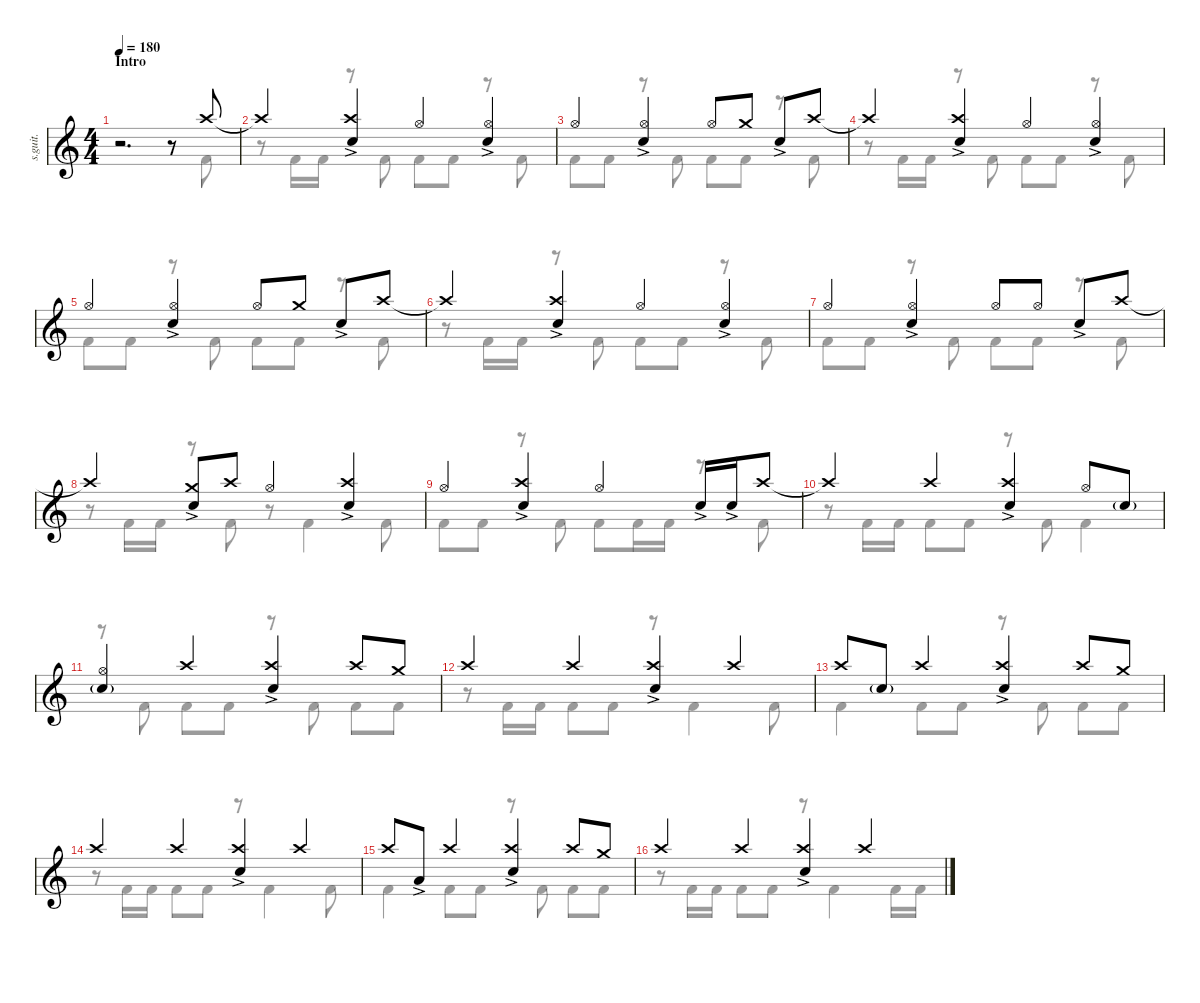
\defaultSystemsLayout 4
\hideDynamics
\bracketExtendMode nobrackets
\track ("Percussion" "s.guit.") {instrument percussion}
\staff {score}
\articulation defaults
\voice
\ts (4 4)
\beaming (8 2 2 2 2)
\section ("" "Intro")
\tempo 180
\clef g2
\ks c
r.2{d dy f} r.8 "Crash high (hit)".8{lyrics (0 "") lyrics (1 "") lyrics (2 "") lyrics (3 "") lyrics (4 "")} |
"Crash high (hit)"{t}.4{lyrics (0 "") lyrics (1 "") lyrics (2 "") lyrics (3 "") lyrics (4 "")} ("Crash high (hit)" "Snare (hit) 2"{ac}).4{lyrics (0 "") lyrics (1 "") lyrics (2 "") lyrics (3 "") lyrics (4 "")} "Hi-Hat (open)".4{lyrics (0 "") lyrics (1 "") lyrics (2 "") lyrics (3 "") lyrics (4 "")} ("Hi-Hat (open)" "Snare (hit) 2"{ac}).4{lyrics (0 "") lyrics (1 "") lyrics (2 "") lyrics (3 "") lyrics (4 "")} |
"Hi-Hat (open)".4{lyrics (0 "") lyrics (1 "") lyrics (2 "") lyrics (3 "") lyrics (4 "")} ("Hi-Hat (open)" "Snare (hit) 2"{ac}).4{lyrics (0 "") lyrics (1 "") lyrics (2 "") lyrics (3 "") lyrics (4 "")} "Hi-Hat (open)".8{lyrics (0 "") lyrics (1 "") lyrics (2 "") lyrics (3 "") lyrics (4 "")} "Crash medium (hit)".8{lyrics (0 "") lyrics (1 "") lyrics (2 "") lyrics (3 "") lyrics (4 "")} "Snare (hit) 2"{ac}.8{lyrics (0 "") lyrics (1 "") lyrics (2 "") lyrics (3 "") lyrics (4 "")} "Crash high (hit)".8{lyrics (0 "") lyrics (1 "") lyrics (2 "") lyrics (3 "") lyrics (4 "")} |
"Crash high (hit)"{t}.4{lyrics (0 "") lyrics (1 "") lyrics (2 "") lyrics (3 "") lyrics (4 "")} ("Crash high (hit)" "Snare (hit) 2"{ac}).4{lyrics (0 "") lyrics (1 "") lyrics (2 "") lyrics (3 "") lyrics (4 "")} "Hi-Hat (open)".4{lyrics (0 "") lyrics (1 "") lyrics (2 "") lyrics (3 "") lyrics (4 "")} ("Hi-Hat (open)" "Snare (hit) 2"{ac}).4{lyrics (0 "") lyrics (1 "") lyrics (2 "") lyrics (3 "") lyrics (4 "")} |
"Hi-Hat (open)".4{lyrics (0 "") lyrics (1 "") lyrics (2 "") lyrics (3 "") lyrics (4 "")} ("Hi-Hat (open)" "Snare (hit) 2"{ac}).4{lyrics (0 "") lyrics (1 "") lyrics (2 "") lyrics (3 "") lyrics (4 "")} "Hi-Hat (open)".8{lyrics (0 "") lyrics (1 "") lyrics (2 "") lyrics (3 "") lyrics (4 "")} "Crash medium (hit)".8{lyrics (0 "") lyrics (1 "") lyrics (2 "") lyrics (3 "") lyrics (4 "")} "Snare (hit) 2"{ac}.8{lyrics (0 "") lyrics (1 "") lyrics (2 "") lyrics (3 "") lyrics (4 "")} "Crash high (hit)".8{lyrics (0 "") lyrics (1 "") lyrics (2 "") lyrics (3 "") lyrics (4 "")} |
"Crash high (hit)"{t}.4{lyrics (0 "") lyrics (1 "") lyrics (2 "") lyrics (3 "") lyrics (4 "")} ("Crash high (hit)" "Snare (hit) 2"{ac}).4{lyrics (0 "") lyrics (1 "") lyrics (2 "") lyrics (3 "") lyrics (4 "")} "Hi-Hat (open)".4{lyrics (0 "") lyrics (1 "") lyrics (2 "") lyrics (3 "") lyrics (4 "")} ("Hi-Hat (open)" "Snare (hit) 2"{ac}).4{lyrics (0 "") lyrics (1 "") lyrics (2 "") lyrics (3 "") lyrics (4 "")} |
"Hi-Hat (open)".4{lyrics (0 "") lyrics (1 "") lyrics (2 "") lyrics (3 "") lyrics (4 "")} ("Hi-Hat (open)" "Snare (hit) 2"{ac}).4{lyrics (0 "") lyrics (1 "") lyrics (2 "") lyrics (3 "") lyrics (4 "")} "Hi-Hat (open)".8{lyrics (0 "") lyrics (1 "") lyrics (2 "") lyrics (3 "") lyrics (4 "")} "Hi-Hat (open)".8{lyrics (0 "") lyrics (1 "") lyrics (2 "") lyrics (3 "") lyrics (4 "")} "Snare (hit) 2"{ac}.8{lyrics (0 "") lyrics (1 "") lyrics (2 "") lyrics (3 "") lyrics (4 "")} "Crash high (hit)".8{lyrics (0 "") lyrics (1 "") lyrics (2 "") lyrics (3 "") lyrics (4 "")} |
"Crash high (hit)"{t}.4{lyrics (0 "") lyrics (1 "") lyrics (2 "") lyrics (3 "") lyrics (4 "")} ("Snare (hit) 2"{ac} "Crash medium (hit)").8{lyrics (0 "") lyrics (1 "") lyrics (2 "") lyrics (3 "") lyrics (4 "")} "Crash high (hit)".8{lyrics (0 "") lyrics (1 "") lyrics (2 "") lyrics (3 "") lyrics (4 "")} "Hi-Hat (open)".4{lyrics (0 "") lyrics (1 "") lyrics (2 "") lyrics (3 "") lyrics (4 "")} ("Snare (hit) 2"{ac} "Crash high (hit)").4{lyrics (0 "") lyrics (1 "") lyrics (2 "") lyrics (3 "") lyrics (4 "")} |
"Hi-Hat (open)".4{lyrics (0 "") lyrics (1 "") lyrics (2 "") lyrics (3 "") lyrics (4 "")} ("Crash high (hit)" "Snare (hit) 2"{ac}).4{lyrics (0 "") lyrics (1 "") lyrics (2 "") lyrics (3 "") lyrics (4 "")} "Hi-Hat (open)".4{lyrics (0 "") lyrics (1 "") lyrics (2 "") lyrics (3 "") lyrics (4 "")} "Snare (hit) 2"{ac}.16{lyrics (0 "") lyrics (1 "") lyrics (2 "") lyrics (3 "") lyrics (4 "")} "Snare (hit) 2"{ac}.16{lyrics (0 "") lyrics (1 "") lyrics (2 "") lyrics (3 "") lyrics (4 "")} "Crash high (hit)".8{lyrics (0 "") lyrics (1 "") lyrics (2 "") lyrics (3 "") lyrics (4 "")} |
"Crash high (hit)"{t}.4{lyrics (0 "") lyrics (1 "") lyrics (2 "") lyrics (3 "") lyrics (4 "")} "Crash high (hit)".4{lyrics (0 "") lyrics (1 "") lyrics (2 "") lyrics (3 "") lyrics (4 "")} ("Snare (hit) 2"{ac} "Crash high (hit)").4{lyrics (0 "") lyrics (1 "") lyrics (2 "") lyrics (3 "") lyrics (4 "")} "Hi-Hat (open)".8{lyrics (0 "") lyrics (1 "") lyrics (2 "") lyrics (3 "") lyrics (4 "")} "Snare (hit) 2"{g}.8{lyrics (0 "") lyrics (1 "") lyrics (2 "") lyrics (3 "") lyrics (4 "")} |
("Snare (hit) 2"{g} "Hi-Hat (open)").4{lyrics (0 "") lyrics (1 "") lyrics (2 "") lyrics (3 "") lyrics (4 "")} "Crash high (hit)".4{lyrics (0 "") lyrics (1 "") lyrics (2 "") lyrics (3 "") lyrics (4 "")} ("Crash high (hit)" "Snare (hit) 2"{ac}).4{lyrics (0 "") lyrics (1 "") lyrics (2 "") lyrics (3 "") lyrics (4 "")} "Crash high (hit)".8{lyrics (0 "") lyrics (1 "") lyrics (2 "") lyrics (3 "") lyrics (4 "")} "Crash medium (hit)".8{lyrics (0 "") lyrics (1 "") lyrics (2 "") lyrics (3 "") lyrics (4 "")} |
"Crash high (hit)".4{lyrics (0 "") lyrics (1 "") lyrics (2 "") lyrics (3 "") lyrics (4 "")} "Crash high (hit)".4{lyrics (0 "") lyrics (1 "") lyrics (2 "") lyrics (3 "") lyrics (4 "")} ("Crash high (hit)" "Snare (hit) 2"{ac}).4{lyrics (0 "") lyrics (1 "") lyrics (2 "") lyrics (3 "") lyrics (4 "")} "Crash high (hit)".4{lyrics (0 "") lyrics (1 "") lyrics (2 "") lyrics (3 "") lyrics (4 "")} |
"Crash high (hit)".8{lyrics (0 "") lyrics (1 "") lyrics (2 "") lyrics (3 "") lyrics (4 "")} "Snare (hit) 2"{g}.8{lyrics (0 "") lyrics (1 "") lyrics (2 "") lyrics (3 "") lyrics (4 "")} "Crash high (hit)".4{lyrics (0 "") lyrics (1 "") lyrics (2 "") lyrics (3 "") lyrics (4 "")} ("Crash high (hit)" "Snare (hit) 2"{ac}).4{lyrics (0 "") lyrics (1 "") lyrics (2 "") lyrics (3 "") lyrics (4 "")} "Crash high (hit)".8{lyrics (0 "") lyrics (1 "") lyrics (2 "") lyrics (3 "") lyrics (4 "")} "Crash medium (hit)".8{lyrics (0 "") lyrics (1 "") lyrics (2 "") lyrics (3 "") lyrics (4 "")} |
"Crash high (hit)".4{lyrics (0 "") lyrics (1 "") lyrics (2 "") lyrics (3 "") lyrics (4 "")} "Crash high (hit)".4{lyrics (0 "") lyrics (1 "") lyrics (2 "") lyrics (3 "") lyrics (4 "")} ("Crash high (hit)" "Snare (hit) 2"{ac}).4{lyrics (0 "") lyrics (1 "") lyrics (2 "") lyrics (3 "") lyrics (4 "")} "Crash high (hit)".4{lyrics (0 "") lyrics (1 "") lyrics (2 "") lyrics (3 "") lyrics (4 "")} |
"Crash high (hit)".8{lyrics (0 "") lyrics (1 "") lyrics (2 "") lyrics (3 "") lyrics (4 "")} "Low Tom (hit)"{ac}.8{lyrics (0 "") lyrics (1 "") lyrics (2 "") lyrics (3 "") lyrics (4 "")} "Crash high (hit)".4{lyrics (0 "") lyrics (1 "") lyrics (2 "") lyrics (3 "") lyrics (4 "")} ("Crash high (hit)" "Snare (hit) 2"{ac}).4{lyrics (0 "") lyrics (1 "") lyrics (2 "") lyrics (3 "") lyrics (4 "")} "Crash high (hit)".8{lyrics (0 "") lyrics (1 "") lyrics (2 "") lyrics (3 "") lyrics (4 "")} "Crash medium (hit)".8{lyrics (0 "") lyrics (1 "") lyrics (2 "") lyrics (3 "") lyrics (4 "")} |
"Crash high (hit)".4{lyrics (0 "") lyrics (1 "") lyrics (2 "") lyrics (3 "") lyrics (4 "")} "Crash high (hit)".4{lyrics (0 "") lyrics (1 "") lyrics (2 "") lyrics (3 "") lyrics (4 "")} ("Crash high (hit)" "Snare (hit) 2"{ac}).4{lyrics (0 "") lyrics (1 "") lyrics (2 "") lyrics (3 "") lyrics (4 "")} "Crash high (hit)".4{lyrics (0 "") lyrics (1 "") lyrics (2 "") lyrics (3 "") lyrics (4 "")}
\voice
\clef g2
\ottava regular
\simile none
\ks c
r.2{d dy f} r.8 "Kick (hit) 2".8{lyrics (0 "") lyrics (1 "") lyrics (2 "") lyrics (3 "") lyrics (4 "")} |
r.8 "Kick (hit) 2".16{lyrics (0 "") lyrics (1 "") lyrics (2 "") lyrics (3 "") lyrics (4 "")} "Kick (hit) 2".16{lyrics (0 "") lyrics (1 "") lyrics (2 "") lyrics (3 "") lyrics (4 "")} r.8 "Kick (hit) 2".8{lyrics (0 "") lyrics (1 "") lyrics (2 "") lyrics (3 "") lyrics (4 "")} "Kick (hit) 2".8{lyrics (0 "") lyrics (1 "") lyrics (2 "") lyrics (3 "") lyrics (4 "")} "Kick (hit) 2".8{lyrics (0 "") lyrics (1 "") lyrics (2 "") lyrics (3 "") lyrics (4 "")} r.8 "Kick (hit) 2".8{lyrics (0 "") lyrics (1 "") lyrics (2 "") lyrics (3 "") lyrics (4 "")} |
"Kick (hit) 2".8{lyrics (0 "") lyrics (1 "") lyrics (2 "") lyrics (3 "") lyrics (4 "")} "Kick (hit) 2".8{lyrics (0 "") lyrics (1 "") lyrics (2 "") lyrics (3 "") lyrics (4 "")} r.8 "Kick (hit) 2".8{lyrics (0 "") lyrics (1 "") lyrics (2 "") lyrics (3 "") lyrics (4 "")} "Kick (hit) 2".8{lyrics (0 "") lyrics (1 "") lyrics (2 "") lyrics (3 "") lyrics (4 "")} "Kick (hit) 2".8{lyrics (0 "") lyrics (1 "") lyrics (2 "") lyrics (3 "") lyrics (4 "")} r.8 "Kick (hit) 2".8{lyrics (0 "") lyrics (1 "") lyrics (2 "") lyrics (3 "") lyrics (4 "")} |
r.8 "Kick (hit) 2".16{lyrics (0 "") lyrics (1 "") lyrics (2 "") lyrics (3 "") lyrics (4 "")} "Kick (hit) 2".16{lyrics (0 "") lyrics (1 "") lyrics (2 "") lyrics (3 "") lyrics (4 "")} r.8 "Kick (hit) 2".8{lyrics (0 "") lyrics (1 "") lyrics (2 "") lyrics (3 "") lyrics (4 "")} "Kick (hit) 2".8{lyrics (0 "") lyrics (1 "") lyrics (2 "") lyrics (3 "") lyrics (4 "")} "Kick (hit) 2".8{lyrics (0 "") lyrics (1 "") lyrics (2 "") lyrics (3 "") lyrics (4 "")} r.8 "Kick (hit) 2".8{lyrics (0 "") lyrics (1 "") lyrics (2 "") lyrics (3 "") lyrics (4 "")} |
"Kick (hit) 2".8{lyrics (0 "") lyrics (1 "") lyrics (2 "") lyrics (3 "") lyrics (4 "")} "Kick (hit) 2".8{lyrics (0 "") lyrics (1 "") lyrics (2 "") lyrics (3 "") lyrics (4 "")} r.8 "Kick (hit) 2".8{lyrics (0 "") lyrics (1 "") lyrics (2 "") lyrics (3 "") lyrics (4 "")} "Kick (hit) 2".8{lyrics (0 "") lyrics (1 "") lyrics (2 "") lyrics (3 "") lyrics (4 "")} "Kick (hit) 2".8{lyrics (0 "") lyrics (1 "") lyrics (2 "") lyrics (3 "") lyrics (4 "")} r.8 "Kick (hit) 2".8{lyrics (0 "") lyrics (1 "") lyrics (2 "") lyrics (3 "") lyrics (4 "")} |
r.8 "Kick (hit) 2".16{lyrics (0 "") lyrics (1 "") lyrics (2 "") lyrics (3 "") lyrics (4 "")} "Kick (hit) 2".16{lyrics (0 "") lyrics (1 "") lyrics (2 "") lyrics (3 "") lyrics (4 "")} r.8 "Kick (hit) 2".8{lyrics (0 "") lyrics (1 "") lyrics (2 "") lyrics (3 "") lyrics (4 "")} "Kick (hit) 2".8{lyrics (0 "") lyrics (1 "") lyrics (2 "") lyrics (3 "") lyrics (4 "")} "Kick (hit) 2".8{lyrics (0 "") lyrics (1 "") lyrics (2 "") lyrics (3 "") lyrics (4 "")} r.8 "Kick (hit) 2".8{lyrics (0 "") lyrics (1 "") lyrics (2 "") lyrics (3 "") lyrics (4 "")} |
"Kick (hit) 2".8{lyrics (0 "") lyrics (1 "") lyrics (2 "") lyrics (3 "") lyrics (4 "")} "Kick (hit) 2".8{lyrics (0 "") lyrics (1 "") lyrics (2 "") lyrics (3 "") lyrics (4 "")} r.8 "Kick (hit) 2".8{lyrics (0 "") lyrics (1 "") lyrics (2 "") lyrics (3 "") lyrics (4 "")} "Kick (hit) 2".8{lyrics (0 "") lyrics (1 "") lyrics (2 "") lyrics (3 "") lyrics (4 "")} "Kick (hit) 2".8{lyrics (0 "") lyrics (1 "") lyrics (2 "") lyrics (3 "") lyrics (4 "")} r.8 "Kick (hit) 2".8{lyrics (0 "") lyrics (1 "") lyrics (2 "") lyrics (3 "") lyrics (4 "")} |
r.8 "Kick (hit) 2".16{lyrics (0 "") lyrics (1 "") lyrics (2 "") lyrics (3 "") lyrics (4 "")} "Kick (hit) 2".16{lyrics (0 "") lyrics (1 "") lyrics (2 "") lyrics (3 "") lyrics (4 "")} r.8 "Kick (hit) 2".8{lyrics (0 "") lyrics (1 "") lyrics (2 "") lyrics (3 "") lyrics (4 "")} r.8 "Kick (hit) 2".4{lyrics (0 "") lyrics (1 "") lyrics (2 "") lyrics (3 "") lyrics (4 "")} "Kick (hit) 2".8{lyrics (0 "") lyrics (1 "") lyrics (2 "") lyrics (3 "") lyrics (4 "")} |
"Kick (hit) 2".8{lyrics (0 "") lyrics (1 "") lyrics (2 "") lyrics (3 "") lyrics (4 "")} "Kick (hit) 2".8{lyrics (0 "") lyrics (1 "") lyrics (2 "") lyrics (3 "") lyrics (4 "")} r.8 "Kick (hit) 2".8{lyrics (0 "") lyrics (1 "") lyrics (2 "") lyrics (3 "") lyrics (4 "")} "Kick (hit) 2".8{lyrics (0 "") lyrics (1 "") lyrics (2 "") lyrics (3 "") lyrics (4 "")} "Kick (hit) 2".16{lyrics (0 "") lyrics (1 "") lyrics (2 "") lyrics (3 "") lyrics (4 "")} "Kick (hit) 2".16{lyrics (0 "") lyrics (1 "") lyrics (2 "") lyrics (3 "") lyrics (4 "")} r.8 "Kick (hit) 2".8{lyrics (0 "") lyrics (1 "") lyrics (2 "") lyrics (3 "") lyrics (4 "")} |
r.8 "Kick (hit) 2".16{lyrics (0 "") lyrics (1 "") lyrics (2 "") lyrics (3 "") lyrics (4 "")} "Kick (hit) 2".16{lyrics (0 "") lyrics (1 "") lyrics (2 "") lyrics (3 "") lyrics (4 "")} "Kick (hit) 2".8{lyrics (0 "") lyrics (1 "") lyrics (2 "") lyrics (3 "") lyrics (4 "")} "Kick (hit) 2".8{lyrics (0 "") lyrics (1 "") lyrics (2 "") lyrics (3 "") lyrics (4 "")} r.8 "Kick (hit) 2".8{lyrics (0 "") lyrics (1 "") lyrics (2 "") lyrics (3 "") lyrics (4 "")} "Kick (hit) 2".4{lyrics (0 "") lyrics (1 "") lyrics (2 "") lyrics (3 "") lyrics (4 "")} |
r.8 "Kick (hit) 2".8{lyrics (0 "") lyrics (1 "") lyrics (2 "") lyrics (3 "") lyrics (4 "")} "Kick (hit) 2".8{lyrics (0 "") lyrics (1 "") lyrics (2 "") lyrics (3 "") lyrics (4 "")} "Kick (hit) 2".8{lyrics (0 "") lyrics (1 "") lyrics (2 "") lyrics (3 "") lyrics (4 "")} r.8 "Kick (hit) 2".8{lyrics (0 "") lyrics (1 "") lyrics (2 "") lyrics (3 "") lyrics (4 "")} "Kick (hit) 2".8{lyrics (0 "") lyrics (1 "") lyrics (2 "") lyrics (3 "") lyrics (4 "")} "Kick (hit) 2".8{lyrics (0 "") lyrics (1 "") lyrics (2 "") lyrics (3 "") lyrics (4 "")} |
r.8 "Kick (hit) 2".16{lyrics (0 "") lyrics (1 "") lyrics (2 "") lyrics (3 "") lyrics (4 "")} "Kick (hit) 2".16{lyrics (0 "") lyrics (1 "") lyrics (2 "") lyrics (3 "") lyrics (4 "")} "Kick (hit) 2".8{lyrics (0 "") lyrics (1 "") lyrics (2 "") lyrics (3 "") lyrics (4 "")} "Kick (hit) 2".8{lyrics (0 "") lyrics (1 "") lyrics (2 "") lyrics (3 "") lyrics (4 "")} r.8 "Kick (hit) 2".4{lyrics (0 "") lyrics (1 "") lyrics (2 "") lyrics (3 "") lyrics (4 "")} "Kick (hit) 2".8{lyrics (0 "") lyrics (1 "") lyrics (2 "") lyrics (3 "") lyrics (4 "")} |
"Kick (hit) 2".4{lyrics (0 "") lyrics (1 "") lyrics (2 "") lyrics (3 "") lyrics (4 "")} "Kick (hit) 2".8{lyrics (0 "") lyrics (1 "") lyrics (2 "") lyrics (3 "") lyrics (4 "")} "Kick (hit) 2".8{lyrics (0 "") lyrics (1 "") lyrics (2 "") lyrics (3 "") lyrics (4 "")} r.8 "Kick (hit) 2".8{lyrics (0 "") lyrics (1 "") lyrics (2 "") lyrics (3 "") lyrics (4 "")} "Kick (hit) 2".8{lyrics (0 "") lyrics (1 "") lyrics (2 "") lyrics (3 "") lyrics (4 "")} "Kick (hit) 2".8{lyrics (0 "") lyrics (1 "") lyrics (2 "") lyrics (3 "") lyrics (4 "")} |
r.8 "Kick (hit) 2".16{lyrics (0 "") lyrics (1 "") lyrics (2 "") lyrics (3 "") lyrics (4 "")} "Kick (hit) 2".16{lyrics (0 "") lyrics (1 "") lyrics (2 "") lyrics (3 "") lyrics (4 "")} "Kick (hit) 2".8{lyrics (0 "") lyrics (1 "") lyrics (2 "") lyrics (3 "") lyrics (4 "")} "Kick (hit) 2".8{lyrics (0 "") lyrics (1 "") lyrics (2 "") lyrics (3 "") lyrics (4 "")} r.8 "Kick (hit) 2".4{lyrics (0 "") lyrics (1 "") lyrics (2 "") lyrics (3 "") lyrics (4 "")} "Kick (hit) 2".8{lyrics (0 "") lyrics (1 "") lyrics (2 "") lyrics (3 "") lyrics (4 "")} |
"Kick (hit) 2".4{lyrics (0 "") lyrics (1 "") lyrics (2 "") lyrics (3 "") lyrics (4 "")} "Kick (hit) 2".8{lyrics (0 "") lyrics (1 "") lyrics (2 "") lyrics (3 "") lyrics (4 "")} "Kick (hit) 2".8{lyrics (0 "") lyrics (1 "") lyrics (2 "") lyrics (3 "") lyrics (4 "")} r.8 "Kick (hit) 2".8{lyrics (0 "") lyrics (1 "") lyrics (2 "") lyrics (3 "") lyrics (4 "")} "Kick (hit) 2".8{lyrics (0 "") lyrics (1 "") lyrics (2 "") lyrics (3 "") lyrics (4 "")} "Kick (hit) 2".8{lyrics (0 "") lyrics (1 "") lyrics (2 "") lyrics (3 "") lyrics (4 "")} |
r.8 "Kick (hit) 2".16{lyrics (0 "") lyrics (1 "") lyrics (2 "") lyrics (3 "") lyrics (4 "")} "Kick (hit) 2".16{lyrics (0 "") lyrics (1 "") lyrics (2 "") lyrics (3 "") lyrics (4 "")} "Kick (hit) 2".8{lyrics (0 "") lyrics (1 "") lyrics (2 "") lyrics (3 "") lyrics (4 "")} "Kick (hit) 2".8{lyrics (0 "") lyrics (1 "") lyrics (2 "") lyrics (3 "") lyrics (4 "")} r.8 "Kick (hit) 2".4{lyrics (0 "") lyrics (1 "") lyrics (2 "") lyrics (3 "") lyrics (4 "")} "Kick (hit) 2".16{lyrics (0 "") lyrics (1 "") lyrics (2 "") lyrics (3 "") lyrics (4 "")} "Kick (hit) 2".16{lyrics (0 "") lyrics (1 "") lyrics (2 "") lyrics (3 "") lyrics (4 "")}
